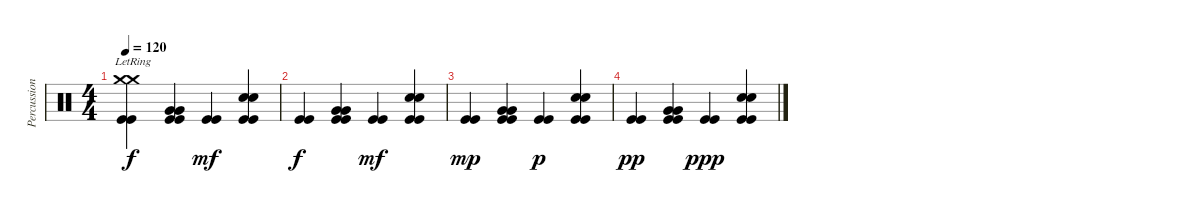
\track ("Percussion" "Percussion") {instrument percussion}
\staff {score}
\articulation defaults
\ts (4 4)
\tempo 120
\clef neutral
\ks c
("Kick (hit)" "Kick (hit)" "Crash medium (hit)"{lr} "Crash medium (hit)"{lr}).4{dy f} ("Kick (hit)" "Kick (hit)" "Very Low Tom (hit)" "Very Low Tom (hit)").4 ("Kick (hit)" "Kick (hit)").4{dy mf} ("Kick (hit)" "Kick (hit)" "Snare (hit) 2" "Snare (hit) 2").4 |
("Kick (hit)" "Kick (hit)").4{dy f} ("Kick (hit)" "Kick (hit)" "Very Low Tom (hit)" "Very Low Tom (hit)").4 ("Kick (hit)" "Kick (hit)").4{dy mf} ("Kick (hit)" "Kick (hit)" "Snare (hit) 2" "Snare (hit) 2").4 |
("Kick (hit)" "Kick (hit)").4{dy mp} ("Kick (hit)" "Kick (hit)" "Very Low Tom (hit)" "Very Low Tom (hit)").4 ("Kick (hit)" "Kick (hit)").4{dy p} ("Kick (hit)" "Kick (hit)" "Snare (hit) 2" "Snare (hit) 2").4 |
("Kick (hit)" "Kick (hit)").4{dy pp} ("Kick (hit)" "Kick (hit)" "Very Low Tom (hit)" "Very Low Tom (hit)").4 ("Kick (hit)" "Kick (hit)").4{dy ppp} ("Kick (hit)" "Kick (hit)" "Snare (hit) 2" "Snare (hit) 2").4
